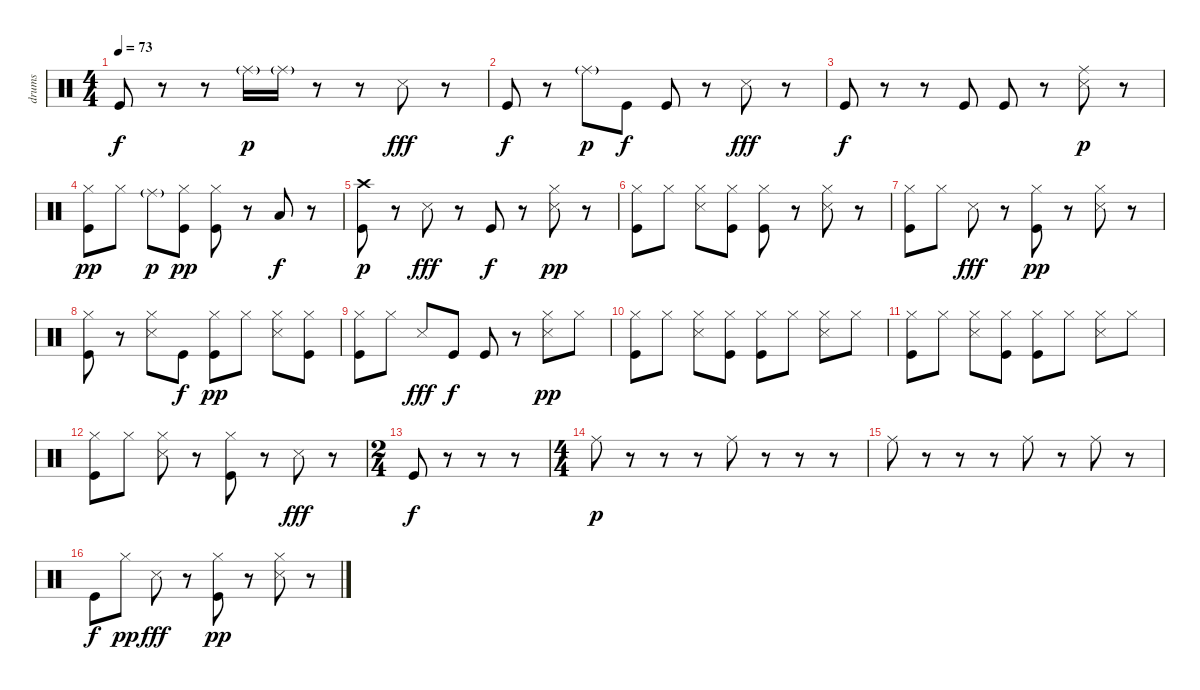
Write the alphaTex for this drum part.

\track ("drums" "drums") {instrument percussion}
\staff {score}
\articulation defaults
\ts (4 4)
\tempo 73
\clef neutral
\ks c "Kick (hit)".8{dy f}
r.8 r.8 "Ride (middle)"{g}.16{dy p} "Ride (middle)"{g}.16 r.8 r.8 "Metronome (hit)".8{dy fff} r.8 |
"Kick (hit)".8{dy f} r.8 "Ride (middle)"{g}.8{dy p} "Kick (hit)".8{dy f} "Kick (hit)".8 r.8 "Metronome (hit)".8{dy fff} r.8 |
"Kick (hit)".8{dy f} r.8 r.8 "Kick (hit)".8 "Kick (hit)".8 r.8 ("Ride (middle)" "Metronome (hit)").8{dy p} r.8 |
("Hi-Hat (closed)" "Kick (hit)").8{dy pp} "Hi-Hat (closed)".8 "Ride (middle)"{g}.8{dy p} ("Hi-Hat (closed)" "Kick (hit)").8{dy pp} ("Hi-Hat (closed)" "Kick (hit)").8 r.8 "Low Floor Tom (hit)".8{dy f} r.8 |
("Crash high (hit)" "Kick (hit)").8{dy p} r.8 "Metronome (hit)".8{dy fff} r.8 "Kick (hit)".8{dy f} r.8 ("Metronome (hit)" "Hi-Hat (closed)").8{dy pp} r.8 |
("Hi-Hat (closed)" "Kick (hit)").8 "Hi-Hat (closed)".8 ("Metronome (hit)" "Hi-Hat (closed)").8 ("Hi-Hat (closed)" "Kick (hit)").8 ("Hi-Hat (closed)" "Kick (hit)").8 r.8 ("Metronome (hit)" "Hi-Hat (closed)").8 r.8 |
("Hi-Hat (closed)" "Kick (hit)").8 "Hi-Hat (closed)".8 "Metronome (hit)".8{dy fff} r.8 ("Hi-Hat (closed)" "Kick (hit)").8{dy pp} r.8 ("Metronome (hit)" "Hi-Hat (closed)").8 r.8 |
("Hi-Hat (closed)" "Kick (hit)").8 r.8 ("Metronome (hit)" "Hi-Hat (closed)").8 "Kick (hit)".8{dy f} ("Hi-Hat (closed)" "Kick (hit)").8{dy pp} "Hi-Hat (closed)".8 ("Metronome (hit)" "Hi-Hat (closed)").8 ("Hi-Hat (closed)" "Kick (hit)").8 |
("Hi-Hat (closed)" "Kick (hit)").8 "Hi-Hat (closed)".8 "Metronome (hit)".8{dy fff} "Kick (hit)".8{dy f} "Kick (hit)".8 r.8 ("Metronome (hit)" "Hi-Hat (closed)").8{dy pp} "Hi-Hat (closed)".8 |
("Hi-Hat (closed)" "Kick (hit)").8 "Hi-Hat (closed)".8 ("Metronome (hit)" "Hi-Hat (closed)").8 ("Hi-Hat (closed)" "Kick (hit)").8 ("Hi-Hat (closed)" "Kick (hit)").8 "Hi-Hat (closed)".8 ("Metronome (hit)" "Hi-Hat (closed)").8 "Hi-Hat (closed)".8 |
("Hi-Hat (closed)" "Kick (hit)").8 "Hi-Hat (closed)".8 ("Metronome (hit)" "Hi-Hat (closed)").8 ("Hi-Hat (closed)" "Kick (hit)").8 ("Hi-Hat (closed)" "Kick (hit)").8 "Hi-Hat (closed)".8 ("Metronome (hit)" "Hi-Hat (closed)").8 "Hi-Hat (closed)".8 |
("Hi-Hat (closed)" "Kick (hit)").8 "Hi-Hat (closed)".8 ("Metronome (hit)" "Hi-Hat (closed)").8 r.8 ("Hi-Hat (closed)" "Kick (hit)").8 r.8 "Metronome (hit)".8{dy fff} r.8 |
\ts (2 4)
"Kick (hit)".8{dy f} r.8 r.8 r.8 |
\ts (4 4)
"Ride (middle)".8{dy p} r.8 r.8 r.8 "Ride (middle)".8 r.8 r.8 r.8 |
"Ride (middle)".8 r.8 r.8 r.8 "Ride (middle)".8 r.8 "Ride (middle)".8 r.8 |
"Kick (hit)".8{dy f} "Hi-Hat (closed)".8{dy pp} "Metronome (hit)".8{dy fff} r.8 ("Hi-Hat (closed)" "Kick (hit)").8{dy pp} r.8 ("Metronome (hit)" "Hi-Hat (closed)").8 r.8
